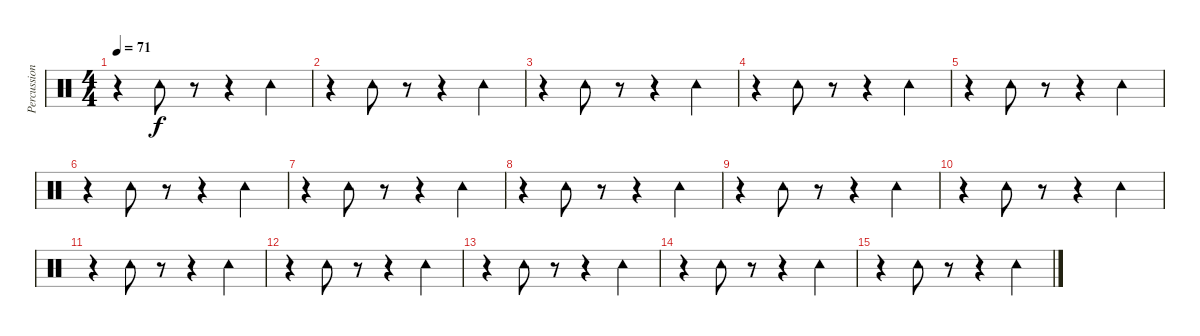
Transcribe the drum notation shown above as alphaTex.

\track ("Percussion" "Percussion") {instrument percussion}
\staff {score}
\articulation defaults
\ts (4 4)
\tempo 71
\clef neutral
\ks c
r.4{dy f} "Tambourine (hit)".8 r.8 r.4 "Tambourine (hit)".4 |
r.4 "Tambourine (hit)".8 r.8 r.4 "Tambourine (hit)".4 |
r.4 "Tambourine (hit)".8 r.8 r.4 "Tambourine (hit)".4 |
r.4 "Tambourine (hit)".8 r.8 r.4 "Tambourine (hit)".4 |
r.4 "Tambourine (hit)".8 r.8 r.4 "Tambourine (hit)".4 |
r.4 "Tambourine (hit)".8 r.8 r.4 "Tambourine (hit)".4 |
r.4 "Tambourine (hit)".8 r.8 r.4 "Tambourine (hit)".4 |
r.4 "Tambourine (hit)".8 r.8 r.4 "Tambourine (hit)".4 |
r.4 "Tambourine (hit)".8 r.8 r.4 "Tambourine (hit)".4 |
r.4 "Tambourine (hit)".8 r.8 r.4 "Tambourine (hit)".4 |
r.4 "Tambourine (hit)".8 r.8 r.4 "Tambourine (hit)".4 |
r.4 "Tambourine (hit)".8 r.8 r.4 "Tambourine (hit)".4 |
r.4 "Tambourine (hit)".8 r.8 r.4 "Tambourine (hit)".4 |
r.4 "Tambourine (hit)".8 r.8 r.4 "Tambourine (hit)".4 |
r.4 "Tambourine (hit)".8 r.8 r.4 "Tambourine (hit)".4
